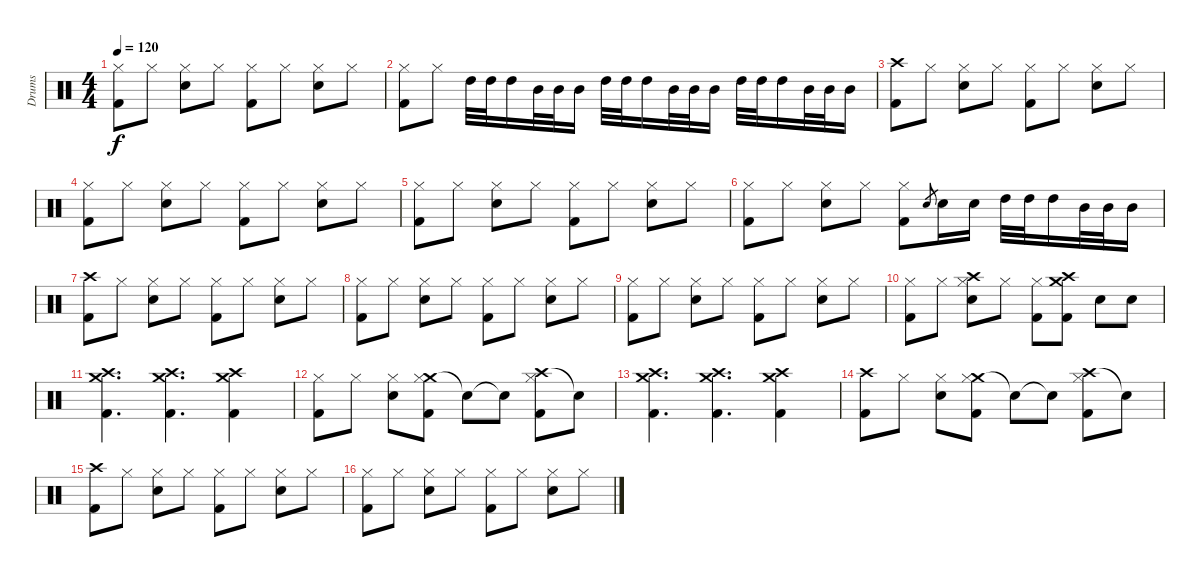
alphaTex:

\track ("Drums" "Drums") {instrument percussion}
\staff {score}
\articulation defaults
\ts (4 4)
\tempo 120
\clef neutral
\ks c
("Hi-Hat (closed)" "Kick (hit) 2").8{dy f} "Hi-Hat (closed)".8 ("Hi-Hat (closed)" "Snare (hit) 2").8 "Hi-Hat (closed)".8 ("Hi-Hat (closed)" "Kick (hit) 2").8 "Hi-Hat (closed)".8 ("Hi-Hat (closed)" "Snare (hit) 2").8 "Hi-Hat (closed)".8 |
("Hi-Hat (closed)" "Kick (hit) 2").8 "Hi-Hat (closed)".8 "High Tom (hit)".32 "High Tom (hit)".32 "High Tom (hit)".16 "Mid Tom (hit)".32 "Mid Tom (hit)".32 "Mid Tom (hit)".16 "High Tom (hit)".32 "High Tom (hit)".32 "High Tom (hit)".16 "Mid Tom (hit)".32 "Mid Tom (hit)".32 "Mid Tom (hit)".16 "High Tom (hit)".32 "High Tom (hit)".32 "High Tom (hit)".16 "Mid Tom (hit)".32 "Mid Tom (hit)".32 "Mid Tom (hit)".16 |
("Crash high (hit)" "Kick (hit) 2").8 "Hi-Hat (closed)".8 ("Hi-Hat (closed)" "Snare (hit) 2").8 "Hi-Hat (closed)".8 ("Hi-Hat (closed)" "Kick (hit) 2").8 "Hi-Hat (closed)".8 ("Hi-Hat (closed)" "Snare (hit) 2").8 "Hi-Hat (closed)".8 |
("Hi-Hat (closed)" "Kick (hit) 2").8 "Hi-Hat (closed)".8 ("Hi-Hat (closed)" "Snare (hit) 2").8 "Hi-Hat (closed)".8 ("Hi-Hat (closed)" "Kick (hit) 2").8 "Hi-Hat (closed)".8 ("Hi-Hat (closed)" "Snare (hit) 2").8 "Hi-Hat (closed)".8 |
("Hi-Hat (closed)" "Kick (hit) 2").8 "Hi-Hat (closed)".8 ("Hi-Hat (closed)" "Snare (hit) 2").8 "Hi-Hat (closed)".8 ("Hi-Hat (closed)" "Kick (hit) 2").8 "Hi-Hat (closed)".8 ("Hi-Hat (closed)" "Snare (hit) 2").8 "Hi-Hat (closed)".8 |
("Hi-Hat (closed)" "Kick (hit) 2").8 "Hi-Hat (closed)".8 ("Hi-Hat (closed)" "Snare (hit) 2").8 "Hi-Hat (closed)".8 ("Hi-Hat (closed)" "Kick (hit) 2").8 "Snare (hit) 2".8{gr} "Snare (hit) 2".16 "Snare (hit) 2".16 "High Tom (hit)".32 "High Tom (hit)".32 "High Tom (hit)".16 "Mid Tom (hit)".32 "Mid Tom (hit)".32 "Mid Tom (hit)".16 |
("Crash high (hit)" "Kick (hit) 2").8 "Hi-Hat (closed)".8 ("Hi-Hat (closed)" "Snare (hit) 2").8 "Hi-Hat (closed)".8 ("Hi-Hat (closed)" "Kick (hit) 2").8 "Hi-Hat (closed)".8 ("Hi-Hat (closed)" "Snare (hit) 2").8 "Hi-Hat (closed)".8 |
("Hi-Hat (closed)" "Kick (hit) 2").8 "Hi-Hat (closed)".8 ("Hi-Hat (closed)" "Snare (hit) 2").8 "Hi-Hat (closed)".8 ("Hi-Hat (closed)" "Kick (hit) 2").8 "Hi-Hat (closed)".8 ("Hi-Hat (closed)" "Snare (hit) 2").8 "Hi-Hat (closed)".8 |
("Hi-Hat (closed)" "Kick (hit) 2").8 "Hi-Hat (closed)".8 ("Hi-Hat (closed)" "Snare (hit) 2").8 "Hi-Hat (closed)".8 ("Hi-Hat (closed)" "Kick (hit) 2").8 "Hi-Hat (closed)".8 ("Hi-Hat (closed)" "Snare (hit) 2").8 "Hi-Hat (closed)".8 |
("Hi-Hat (closed)" "Kick (hit) 2").8 "Hi-Hat (closed)".8 ("Crash high (hit)" "Hi-Hat (closed)" "Snare (hit) 2").8 "Hi-Hat (closed)".8 ("Hi-Hat (closed)" "Kick (hit) 2").8 ("Crash high (hit)" "Crash medium (hit)" "Kick (hit) 2").8 "Electric Snare (hit)".8 "Electric Snare (hit)".8 |
("Crash medium (hit)" "Crash high (hit)" "Kick (hit) 2").4{d} ("Crash medium (hit)" "Crash high (hit)" "Kick (hit) 2").4{d} ("Crash medium (hit)" "Crash high (hit)" "Kick (hit) 2").4 |
("Hi-Hat (closed)" "Kick (hit) 2").8 "Hi-Hat (closed)".8 ("Hi-Hat (closed)" "Electric Snare (hit)").8 ("Crash medium (hit)" "Hi-Hat (closed)" "Kick (hit) 2").8 "Snare (hit)"{t}.8 "Snare (hit)"{t}.8 ("Crash high (hit)" "Hi-Hat (closed)" "Kick (hit) 2").8 "Snare (hit)"{t}.8 |
("Crash medium (hit)" "Crash high (hit)" "Kick (hit) 2").4{d} ("Crash medium (hit)" "Crash high (hit)" "Kick (hit) 2").4{d} ("Crash medium (hit)" "Crash high (hit)" "Kick (hit) 2").4 |
("Crash high (hit)" "Kick (hit) 2").8 "Hi-Hat (closed)".8 ("Hi-Hat (closed)" "Electric Snare (hit)").8 ("Crash medium (hit)" "Hi-Hat (closed)" "Kick (hit) 2").8 "Snare (hit)"{t}.8 "Snare (hit)"{t}.8 ("Crash high (hit)" "Hi-Hat (closed)" "Kick (hit) 2").8 "Snare (hit)"{t}.8 |
("Crash high (hit)" "Kick (hit) 2").8 "Hi-Hat (closed)".8 ("Hi-Hat (closed)" "Snare (hit) 2").8 "Hi-Hat (closed)".8 ("Hi-Hat (closed)" "Kick (hit) 2").8 "Hi-Hat (closed)".8 ("Hi-Hat (closed)" "Snare (hit) 2").8 "Hi-Hat (closed)".8 |
("Hi-Hat (closed)" "Kick (hit) 2").8 "Hi-Hat (closed)".8 ("Hi-Hat (closed)" "Snare (hit) 2").8 "Hi-Hat (closed)".8 ("Hi-Hat (closed)" "Kick (hit) 2").8 "Hi-Hat (closed)".8 ("Hi-Hat (closed)" "Snare (hit) 2").8 "Hi-Hat (closed)".8
